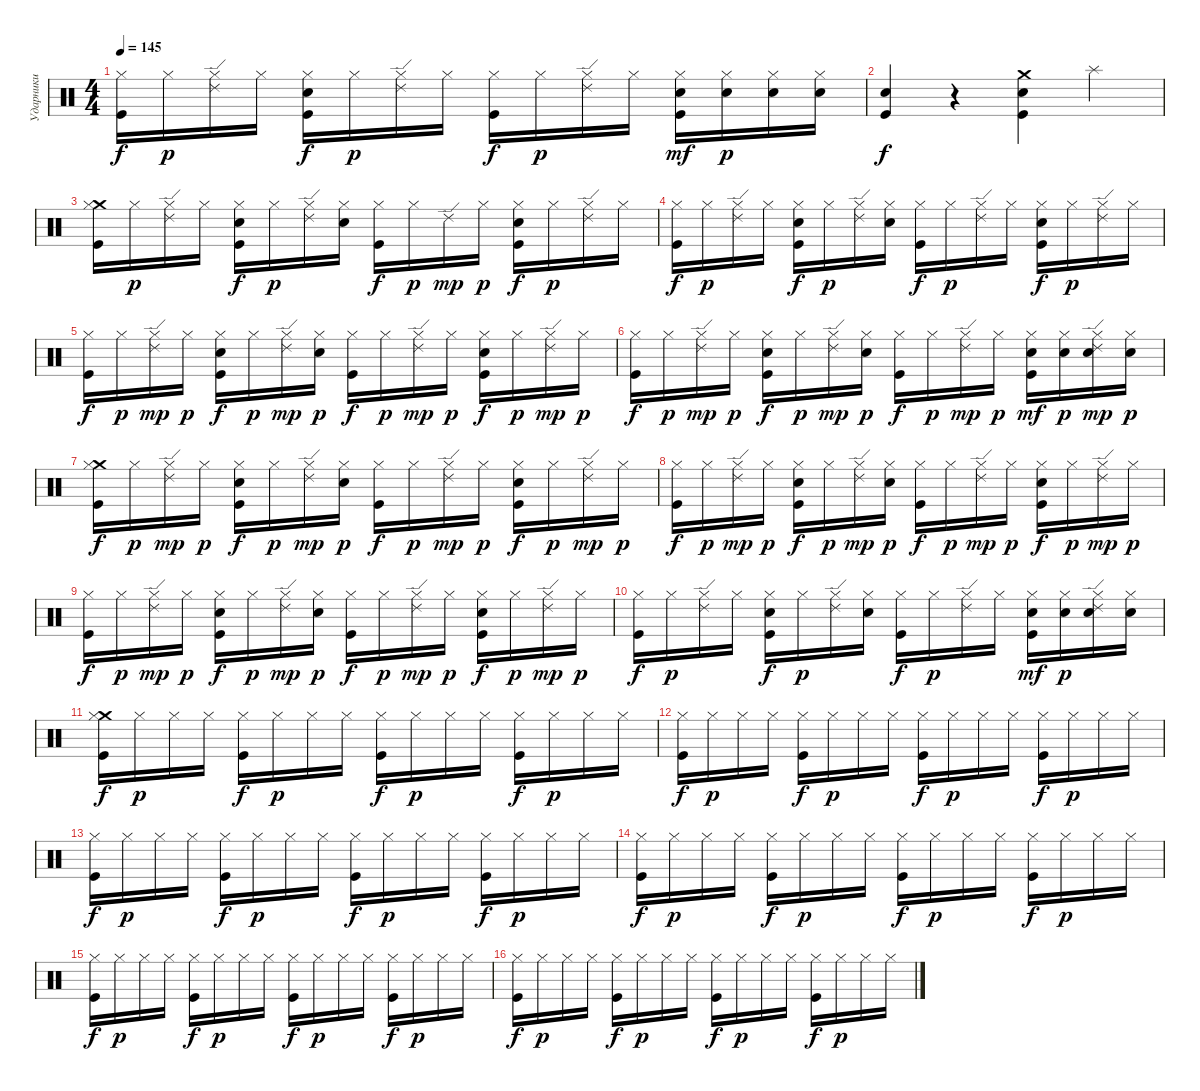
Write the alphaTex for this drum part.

\track ("Ударники" "Ударники") {instrument percussion}
\staff {score}
\articulation defaults
\ts (4 4)
\tempo 145
\clef neutral
\ks c
("Kick (hit)" "Hi-Hat (closed)").16{dy f} "Hi-Hat (closed)".16{dy p} ("Ride (edge) 2" "Hi-Hat (closed)").16 "Hi-Hat (closed)".16 ("Electric Snare (hit)" "Kick (hit)" "Hi-Hat (closed)").16{dy f} "Hi-Hat (closed)".16{dy p} ("Ride (edge) 2" "Hi-Hat (closed)").16 "Hi-Hat (closed)".16 ("Kick (hit)" "Hi-Hat (closed)").16{dy f} "Hi-Hat (closed)".16{dy p} ("Ride (edge) 2" "Hi-Hat (closed)").16 "Hi-Hat (closed)".16 ("Electric Snare (hit)" "Kick (hit)" "Hi-Hat (closed)").16{dy mf} ("Electric Snare (hit)" "Hi-Hat (closed)").16{dy p} ("Electric Snare (hit)" "Hi-Hat (closed)").16 ("Electric Snare (hit)" "Hi-Hat (closed)").16 |
("Electric Snare (hit)" "Kick (hit)").4{dy f} r.4 ("Crash medium (hit)" "Kick (hit)" "Electric Snare (hit)").4 "Splash (hit)".4 |
("Crash medium (hit)" "Kick (hit)" "Hi-Hat (closed)").16 "Hi-Hat (closed)".16{dy p} ("Ride (edge) 2" "Hi-Hat (closed)").16 "Hi-Hat (closed)".16 ("Electric Snare (hit)" "Kick (hit)" "Hi-Hat (closed)").16{dy f} "Hi-Hat (closed)".16{dy p} ("Ride (edge) 2" "Hi-Hat (closed)").16 ("Electric Snare (hit)" "Hi-Hat (closed)").16 ("Kick (hit)" "Hi-Hat (closed)").16{dy f} "Hi-Hat (closed)".16{dy p} "Ride (edge) 2".16{dy mp} "Hi-Hat (closed)".16{dy p} ("Electric Snare (hit)" "Kick (hit)" "Hi-Hat (closed)").16{dy f} "Hi-Hat (closed)".16{dy p} ("Ride (edge) 2" "Hi-Hat (closed)").16 "Hi-Hat (closed)".16 |
("Kick (hit)" "Hi-Hat (closed)").16{dy f} "Hi-Hat (closed)".16{dy p} ("Ride (edge) 2" "Hi-Hat (closed)").16 "Hi-Hat (closed)".16 ("Electric Snare (hit)" "Kick (hit)" "Hi-Hat (closed)").16{dy f} "Hi-Hat (closed)".16{dy p} ("Ride (edge) 2" "Hi-Hat (closed)").16 ("Electric Snare (hit)" "Hi-Hat (closed)").16 ("Kick (hit)" "Hi-Hat (closed)").16{dy f} "Hi-Hat (closed)".16{dy p} ("Ride (edge) 2" "Hi-Hat (closed)").16 "Hi-Hat (closed)".16 ("Electric Snare (hit)" "Kick (hit)" "Hi-Hat (closed)").16{dy f} "Hi-Hat (closed)".16{dy p} ("Ride (edge) 2" "Hi-Hat (closed)").16 "Hi-Hat (closed)".16 |
("Kick (hit)" "Hi-Hat (closed)").16{dy f} "Hi-Hat (closed)".16{dy p} ("Hi-Hat (closed)" "Ride (edge) 2").16{dy mp} "Hi-Hat (closed)".16{dy p} ("Electric Snare (hit)" "Kick (hit)" "Hi-Hat (closed)").16{dy f} "Hi-Hat (closed)".16{dy p} ("Hi-Hat (closed)" "Ride (edge) 2").16{dy mp} ("Electric Snare (hit)" "Hi-Hat (closed)").16{dy p} ("Kick (hit)" "Hi-Hat (closed)").16{dy f} "Hi-Hat (closed)".16{dy p} ("Hi-Hat (closed)" "Ride (edge) 2").16{dy mp} "Hi-Hat (closed)".16{dy p} ("Electric Snare (hit)" "Kick (hit)" "Hi-Hat (closed)").16{dy f} "Hi-Hat (closed)".16{dy p} ("Hi-Hat (closed)" "Ride (edge) 2").16{dy mp} "Hi-Hat (closed)".16{dy p} |
("Kick (hit)" "Hi-Hat (closed)").16{dy f} "Hi-Hat (closed)".16{dy p} ("Hi-Hat (closed)" "Ride (edge) 2").16{dy mp} "Hi-Hat (closed)".16{dy p} ("Electric Snare (hit)" "Kick (hit)" "Hi-Hat (closed)").16{dy f} "Hi-Hat (closed)".16{dy p} ("Hi-Hat (closed)" "Ride (edge) 2").16{dy mp} ("Electric Snare (hit)" "Hi-Hat (closed)").16{dy p} ("Kick (hit)" "Hi-Hat (closed)").16{dy f} "Hi-Hat (closed)".16{dy p} ("Hi-Hat (closed)" "Ride (edge) 2").16{dy mp} "Hi-Hat (closed)".16{dy p} ("Electric Snare (hit)" "Kick (hit)" "Hi-Hat (closed)").16{dy mf} ("Electric Snare (hit)" "Hi-Hat (closed)").16{dy p} ("Electric Snare (hit)" "Hi-Hat (closed)" "Ride (edge) 2").16{dy mp} ("Electric Snare (hit)" "Hi-Hat (closed)").16{dy p} |
("Crash medium (hit)" "Kick (hit)" "Hi-Hat (closed)").16{dy f} "Hi-Hat (closed)".16{dy p} ("Hi-Hat (closed)" "Ride (edge) 2").16{dy mp} "Hi-Hat (closed)".16{dy p} ("Electric Snare (hit)" "Kick (hit)" "Hi-Hat (closed)").16{dy f} "Hi-Hat (closed)".16{dy p} ("Hi-Hat (closed)" "Ride (edge) 2").16{dy mp} ("Electric Snare (hit)" "Hi-Hat (closed)").16{dy p} ("Kick (hit)" "Hi-Hat (closed)").16{dy f} "Hi-Hat (closed)".16{dy p} ("Hi-Hat (closed)" "Ride (edge) 2").16{dy mp} "Hi-Hat (closed)".16{dy p} ("Electric Snare (hit)" "Kick (hit)" "Hi-Hat (closed)").16{dy f} "Hi-Hat (closed)".16{dy p} ("Hi-Hat (closed)" "Ride (edge) 2").16{dy mp} "Hi-Hat (closed)".16{dy p} |
("Kick (hit)" "Hi-Hat (closed)").16{dy f} "Hi-Hat (closed)".16{dy p} ("Hi-Hat (closed)" "Ride (edge) 2").16{dy mp} "Hi-Hat (closed)".16{dy p} ("Electric Snare (hit)" "Kick (hit)" "Hi-Hat (closed)").16{dy f} "Hi-Hat (closed)".16{dy p} ("Hi-Hat (closed)" "Ride (edge) 2").16{dy mp} ("Electric Snare (hit)" "Hi-Hat (closed)").16{dy p} ("Kick (hit)" "Hi-Hat (closed)").16{dy f} "Hi-Hat (closed)".16{dy p} ("Hi-Hat (closed)" "Ride (edge) 2").16{dy mp} "Hi-Hat (closed)".16{dy p} ("Electric Snare (hit)" "Kick (hit)" "Hi-Hat (closed)").16{dy f} "Hi-Hat (closed)".16{dy p} ("Hi-Hat (closed)" "Ride (edge) 2").16{dy mp} "Hi-Hat (closed)".16{dy p} |
("Kick (hit)" "Hi-Hat (closed)").16{dy f} "Hi-Hat (closed)".16{dy p} ("Hi-Hat (closed)" "Ride (edge) 2").16{dy mp} "Hi-Hat (closed)".16{dy p} ("Electric Snare (hit)" "Kick (hit)" "Hi-Hat (closed)").16{dy f} "Hi-Hat (closed)".16{dy p} ("Hi-Hat (closed)" "Ride (edge) 2").16{dy mp} ("Electric Snare (hit)" "Hi-Hat (closed)").16{dy p} ("Kick (hit)" "Hi-Hat (closed)").16{dy f} "Hi-Hat (closed)".16{dy p} ("Hi-Hat (closed)" "Ride (edge) 2").16{dy mp} "Hi-Hat (closed)".16{dy p} ("Electric Snare (hit)" "Kick (hit)" "Hi-Hat (closed)").16{dy f} "Hi-Hat (closed)".16{dy p} ("Hi-Hat (closed)" "Ride (edge) 2").16{dy mp} "Hi-Hat (closed)".16{dy p} |
("Kick (hit)" "Hi-Hat (closed)").16{dy f} "Hi-Hat (closed)".16{dy p} ("Ride (edge) 2" "Hi-Hat (closed)").16 "Hi-Hat (closed)".16 ("Electric Snare (hit)" "Kick (hit)" "Hi-Hat (closed)").16{dy f} "Hi-Hat (closed)".16{dy p} ("Ride (edge) 2" "Hi-Hat (closed)").16 ("Electric Snare (hit)" "Hi-Hat (closed)").16 ("Kick (hit)" "Hi-Hat (closed)").16{dy f} "Hi-Hat (closed)".16{dy p} ("Ride (edge) 2" "Hi-Hat (closed)").16 "Hi-Hat (closed)".16 ("Electric Snare (hit)" "Kick (hit)" "Hi-Hat (closed)").16{dy mf} ("Electric Snare (hit)" "Hi-Hat (closed)").16{dy p} ("Electric Snare (hit)" "Ride (edge) 2" "Hi-Hat (closed)").16 ("Electric Snare (hit)" "Hi-Hat (closed)").16 |
("Crash medium (hit)" "Kick (hit)" "Hi-Hat (closed)").16{dy f} "Hi-Hat (closed)".16{dy p} "Hi-Hat (closed)".16 "Hi-Hat (closed)".16 ("Kick (hit)" "Hi-Hat (closed)").16{dy f} "Hi-Hat (closed)".16{dy p} "Hi-Hat (closed)".16 "Hi-Hat (closed)".16 ("Kick (hit)" "Hi-Hat (closed)").16{dy f} "Hi-Hat (closed)".16{dy p} "Hi-Hat (closed)".16 "Hi-Hat (closed)".16 ("Kick (hit)" "Hi-Hat (closed)").16{dy f} "Hi-Hat (closed)".16{dy p} "Hi-Hat (closed)".16 "Hi-Hat (closed)".16 |
("Kick (hit)" "Hi-Hat (closed)").16{dy f} "Hi-Hat (closed)".16{dy p} "Hi-Hat (closed)".16 "Hi-Hat (closed)".16 ("Kick (hit)" "Hi-Hat (closed)").16{dy f} "Hi-Hat (closed)".16{dy p} "Hi-Hat (closed)".16 "Hi-Hat (closed)".16 ("Kick (hit)" "Hi-Hat (closed)").16{dy f} "Hi-Hat (closed)".16{dy p} "Hi-Hat (closed)".16 "Hi-Hat (closed)".16 ("Kick (hit)" "Hi-Hat (closed)").16{dy f} "Hi-Hat (closed)".16{dy p} "Hi-Hat (closed)".16 "Hi-Hat (closed)".16 |
("Kick (hit)" "Hi-Hat (closed)").16{dy f} "Hi-Hat (closed)".16{dy p} "Hi-Hat (closed)".16 "Hi-Hat (closed)".16 ("Kick (hit)" "Hi-Hat (closed)").16{dy f} "Hi-Hat (closed)".16{dy p} "Hi-Hat (closed)".16 "Hi-Hat (closed)".16 ("Kick (hit)" "Hi-Hat (closed)").16{dy f} "Hi-Hat (closed)".16{dy p} "Hi-Hat (closed)".16 "Hi-Hat (closed)".16 ("Kick (hit)" "Hi-Hat (closed)").16{dy f} "Hi-Hat (closed)".16{dy p} "Hi-Hat (closed)".16 "Hi-Hat (closed)".16 |
("Kick (hit)" "Hi-Hat (closed)").16{dy f} "Hi-Hat (closed)".16{dy p} "Hi-Hat (closed)".16 "Hi-Hat (closed)".16 ("Kick (hit)" "Hi-Hat (closed)").16{dy f} "Hi-Hat (closed)".16{dy p} "Hi-Hat (closed)".16 "Hi-Hat (closed)".16 ("Kick (hit)" "Hi-Hat (closed)").16{dy f} "Hi-Hat (closed)".16{dy p} "Hi-Hat (closed)".16 "Hi-Hat (closed)".16 ("Kick (hit)" "Hi-Hat (closed)").16{dy f} "Hi-Hat (closed)".16{dy p} "Hi-Hat (closed)".16 "Hi-Hat (closed)".16 |
("Kick (hit)" "Hi-Hat (closed)").16{dy f} "Hi-Hat (closed)".16{dy p} "Hi-Hat (closed)".16 "Hi-Hat (closed)".16 ("Kick (hit)" "Hi-Hat (closed)").16{dy f} "Hi-Hat (closed)".16{dy p} "Hi-Hat (closed)".16 "Hi-Hat (closed)".16 ("Kick (hit)" "Hi-Hat (closed)").16{dy f} "Hi-Hat (closed)".16{dy p} "Hi-Hat (closed)".16 "Hi-Hat (closed)".16 ("Kick (hit)" "Hi-Hat (closed)").16{dy f} "Hi-Hat (closed)".16{dy p} "Hi-Hat (closed)".16 "Hi-Hat (closed)".16 |
("Kick (hit)" "Hi-Hat (closed)").16{dy f} "Hi-Hat (closed)".16{dy p} "Hi-Hat (closed)".16 "Hi-Hat (closed)".16 ("Kick (hit)" "Hi-Hat (closed)").16{dy f} "Hi-Hat (closed)".16{dy p} "Hi-Hat (closed)".16 "Hi-Hat (closed)".16 ("Kick (hit)" "Hi-Hat (closed)").16{dy f} "Hi-Hat (closed)".16{dy p} "Hi-Hat (closed)".16 "Hi-Hat (closed)".16 ("Kick (hit)" "Hi-Hat (closed)").16{dy f} "Hi-Hat (closed)".16{dy p} "Hi-Hat (closed)".16 "Hi-Hat (closed)".16
